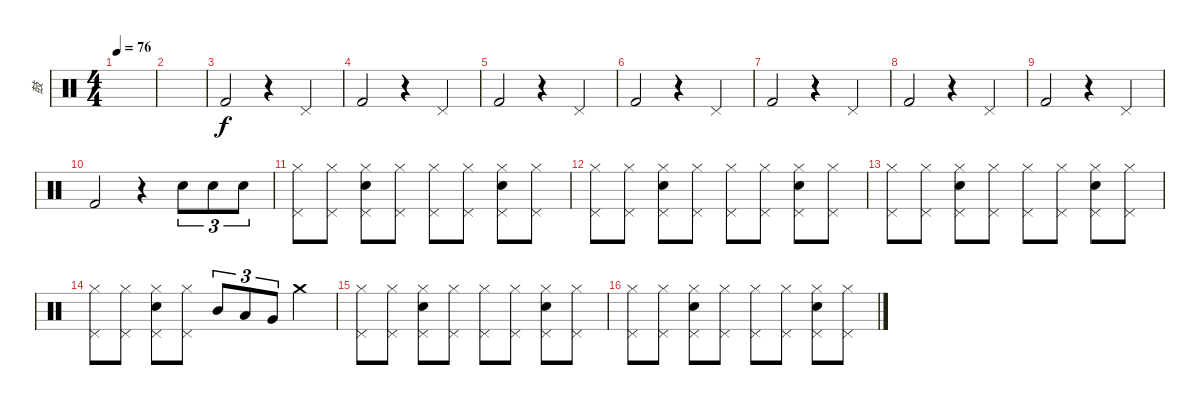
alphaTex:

\track ("鼓" "鼓") {instrument percussion}
\staff {score}
\articulation defaults
\ts (4 4)
\tempo 76
\clef neutral
\ks c
|
|
"Kick (hit) 2".2 r.4 "Pedal Hi-Hat (hit)".4 |
"Kick (hit) 2".2 r.4 "Pedal Hi-Hat (hit)".4 |
"Kick (hit) 2".2 r.4 "Pedal Hi-Hat (hit)".4 |
"Kick (hit) 2".2 r.4 "Pedal Hi-Hat (hit)".4 |
"Kick (hit) 2".2 r.4 "Pedal Hi-Hat (hit)".4 |
"Kick (hit) 2".2 r.4 "Pedal Hi-Hat (hit)".4 |
"Kick (hit) 2".2 r.4 "Pedal Hi-Hat (hit)".4 |
"Kick (hit) 2".2 r.4 "Snare (hit) 2".8{tu (3 2)} "Electric Snare (hit)".8{tu (3 2)} "Electric Snare (hit)".8{tu (3 2)} |
("Pedal Hi-Hat (hit)" "Hi-Hat (closed)").8 ("Pedal Hi-Hat (hit)" "Hi-Hat (closed)").8 ("Pedal Hi-Hat (hit)" "Electric Snare (hit)" "Hi-Hat (closed)").8 ("Pedal Hi-Hat (hit)" "Hi-Hat (closed)").8 ("Pedal Hi-Hat (hit)" "Hi-Hat (closed)").8 ("Pedal Hi-Hat (hit)" "Hi-Hat (closed)").8 ("Pedal Hi-Hat (hit)" "Electric Snare (hit)" "Hi-Hat (closed)").8 ("Pedal Hi-Hat (hit)" "Hi-Hat (closed)").8 |
("Pedal Hi-Hat (hit)" "Hi-Hat (closed)").8 ("Pedal Hi-Hat (hit)" "Hi-Hat (closed)").8 ("Pedal Hi-Hat (hit)" "Electric Snare (hit)" "Hi-Hat (closed)").8 ("Pedal Hi-Hat (hit)" "Hi-Hat (closed)").8 ("Pedal Hi-Hat (hit)" "Hi-Hat (closed)").8 ("Pedal Hi-Hat (hit)" "Hi-Hat (closed)").8 ("Pedal Hi-Hat (hit)" "Electric Snare (hit)" "Hi-Hat (closed)").8 ("Pedal Hi-Hat (hit)" "Hi-Hat (closed)").8 |
("Pedal Hi-Hat (hit)" "Hi-Hat (closed)").8 ("Pedal Hi-Hat (hit)" "Hi-Hat (closed)").8 ("Pedal Hi-Hat (hit)" "Electric Snare (hit)" "Hi-Hat (closed)").8 ("Pedal Hi-Hat (hit)" "Hi-Hat (closed)").8 ("Pedal Hi-Hat (hit)" "Hi-Hat (closed)").8 ("Pedal Hi-Hat (hit)" "Hi-Hat (closed)").8 ("Pedal Hi-Hat (hit)" "Electric Snare (hit)" "Hi-Hat (closed)").8 ("Pedal Hi-Hat (hit)" "Hi-Hat (closed)").8 |
("Pedal Hi-Hat (hit)" "Hi-Hat (closed)").8 ("Pedal Hi-Hat (hit)" "Hi-Hat (closed)").8 ("Pedal Hi-Hat (hit)" "Electric Snare (hit)" "Hi-Hat (closed)").8 ("Pedal Hi-Hat (hit)" "Hi-Hat (closed)").8 "Mid Tom (hit)".8{tu (3 2)} "Low Tom (hit)".8{tu (3 2)} "Very Low Tom (hit)".8{tu (3 2)} "Crash medium (hit)".4 |
("Pedal Hi-Hat (hit)" "Hi-Hat (closed)").8 ("Pedal Hi-Hat (hit)" "Hi-Hat (closed)").8 ("Pedal Hi-Hat (hit)" "Electric Snare (hit)" "Hi-Hat (closed)").8 ("Pedal Hi-Hat (hit)" "Hi-Hat (closed)").8 ("Pedal Hi-Hat (hit)" "Hi-Hat (closed)").8 ("Pedal Hi-Hat (hit)" "Hi-Hat (closed)").8 ("Pedal Hi-Hat (hit)" "Electric Snare (hit)" "Hi-Hat (closed)").8 ("Pedal Hi-Hat (hit)" "Hi-Hat (closed)").8 |
("Pedal Hi-Hat (hit)" "Hi-Hat (closed)").8 ("Pedal Hi-Hat (hit)" "Hi-Hat (closed)").8 ("Pedal Hi-Hat (hit)" "Electric Snare (hit)" "Hi-Hat (closed)").8 ("Pedal Hi-Hat (hit)" "Hi-Hat (closed)").8 ("Pedal Hi-Hat (hit)" "Hi-Hat (closed)").8 ("Pedal Hi-Hat (hit)" "Hi-Hat (closed)").8 ("Pedal Hi-Hat (hit)" "Electric Snare (hit)" "Hi-Hat (closed)").8 ("Pedal Hi-Hat (hit)" "Hi-Hat (closed)").8
